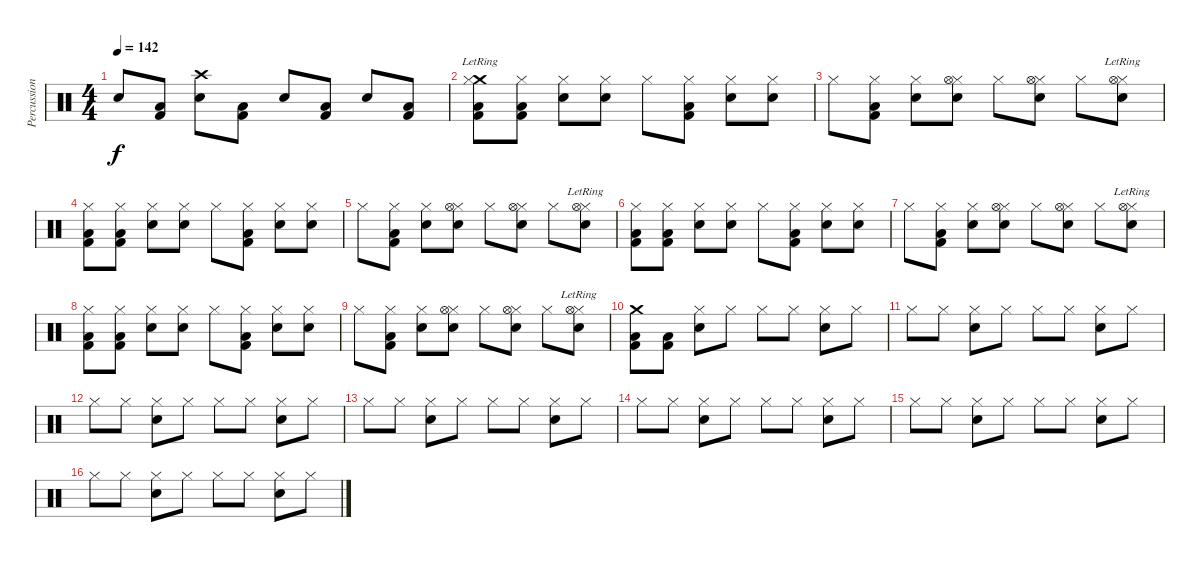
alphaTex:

\track ("Percussions" "Percussion") {instrument percussion}
\staff {score}
\articulation defaults
\ts (4 4)
\tempo 142
\clef neutral
\ks c "Electric Snare (hit)".8{dy f}
("Kick (hit) 2" "Low Floor Tom (hit)").8 ("Electric Snare (hit)" "Crash high (hit)").8 ("Kick (hit) 2" "Low Floor Tom (hit)").8 "Electric Snare (hit)".8 ("Kick (hit) 2" "Low Floor Tom (hit)").8 "Electric Snare (hit)".8 ("Kick (hit) 2" "Low Floor Tom (hit)").8 |
("Kick (hit) 2" "Low Floor Tom (hit)" "Crash medium (hit)"{lr} "Hi-Hat (closed)").8 ("Kick (hit) 2" "Low Floor Tom (hit)" "Hi-Hat (closed)").8 ("Electric Snare (hit)" "Hi-Hat (closed)").8 ("Electric Snare (hit)" "Hi-Hat (closed)").8 "Hi-Hat (closed)".8 ("Kick (hit) 2" "Low Floor Tom (hit)" "Hi-Hat (closed)").8 ("Electric Snare (hit)" "Hi-Hat (closed)").8 ("Electric Snare (hit)" "Hi-Hat (closed)").8 |
"Hi-Hat (closed)".8 ("Kick (hit) 2" "Low Floor Tom (hit)" "Hi-Hat (closed)").8 ("Electric Snare (hit)" "Hi-Hat (closed)").8 ("Electric Snare (hit)" "Hi-Hat (closed)" "Hi-Hat (open)").8 "Hi-Hat (closed)".8 ("Electric Snare (hit)" "Hi-Hat (closed)" "Hi-Hat (open)").8 "Hi-Hat (closed)".8 ("Electric Snare (hit)" "Hi-Hat (closed)" "Hi-Hat (open)"{lr}).8 |
("Kick (hit) 2" "Low Floor Tom (hit)" "Hi-Hat (closed)").8 ("Kick (hit) 2" "Low Floor Tom (hit)" "Hi-Hat (closed)").8 ("Electric Snare (hit)" "Hi-Hat (closed)").8 ("Electric Snare (hit)" "Hi-Hat (closed)").8 "Hi-Hat (closed)".8 ("Kick (hit) 2" "Low Floor Tom (hit)" "Hi-Hat (closed)").8 ("Electric Snare (hit)" "Hi-Hat (closed)").8 ("Electric Snare (hit)" "Hi-Hat (closed)").8 |
"Hi-Hat (closed)".8 ("Kick (hit) 2" "Low Floor Tom (hit)" "Hi-Hat (closed)").8 ("Electric Snare (hit)" "Hi-Hat (closed)").8 ("Electric Snare (hit)" "Hi-Hat (closed)" "Hi-Hat (open)").8 "Hi-Hat (closed)".8 ("Electric Snare (hit)" "Hi-Hat (closed)" "Hi-Hat (open)").8 "Hi-Hat (closed)".8 ("Electric Snare (hit)" "Hi-Hat (closed)" "Hi-Hat (open)"{lr}).8 |
("Kick (hit) 2" "Low Floor Tom (hit)" "Hi-Hat (closed)").8 ("Kick (hit) 2" "Low Floor Tom (hit)" "Hi-Hat (closed)").8 ("Electric Snare (hit)" "Hi-Hat (closed)").8 ("Electric Snare (hit)" "Hi-Hat (closed)").8 "Hi-Hat (closed)".8 ("Kick (hit) 2" "Low Floor Tom (hit)" "Hi-Hat (closed)").8 ("Electric Snare (hit)" "Hi-Hat (closed)").8 ("Electric Snare (hit)" "Hi-Hat (closed)").8 |
"Hi-Hat (closed)".8 ("Kick (hit) 2" "Low Floor Tom (hit)" "Hi-Hat (closed)").8 ("Electric Snare (hit)" "Hi-Hat (closed)").8 ("Electric Snare (hit)" "Hi-Hat (closed)" "Hi-Hat (open)").8 "Hi-Hat (closed)".8 ("Electric Snare (hit)" "Hi-Hat (closed)" "Hi-Hat (open)").8 "Hi-Hat (closed)".8 ("Electric Snare (hit)" "Hi-Hat (closed)" "Hi-Hat (open)"{lr}).8 |
("Kick (hit) 2" "Low Floor Tom (hit)" "Hi-Hat (closed)").8 ("Kick (hit) 2" "Low Floor Tom (hit)" "Hi-Hat (closed)").8 ("Electric Snare (hit)" "Hi-Hat (closed)").8 ("Electric Snare (hit)" "Hi-Hat (closed)").8 "Hi-Hat (closed)".8 ("Kick (hit) 2" "Low Floor Tom (hit)" "Hi-Hat (closed)").8 ("Electric Snare (hit)" "Hi-Hat (closed)").8 ("Electric Snare (hit)" "Hi-Hat (closed)").8 |
"Hi-Hat (closed)".8 ("Kick (hit) 2" "Low Floor Tom (hit)" "Hi-Hat (closed)").8 ("Electric Snare (hit)" "Hi-Hat (closed)").8 ("Electric Snare (hit)" "Hi-Hat (closed)" "Hi-Hat (open)").8 "Hi-Hat (closed)".8 ("Electric Snare (hit)" "Hi-Hat (closed)" "Hi-Hat (open)").8 "Hi-Hat (closed)".8 ("Electric Snare (hit)" "Hi-Hat (closed)" "Hi-Hat (open)"{lr}).8 |
("Kick (hit) 2" "Low Floor Tom (hit)" "Crash medium (hit)").8 ("Kick (hit) 2" "Low Floor Tom (hit)").8 ("Electric Snare (hit)" "Hi-Hat (closed)").8 "Hi-Hat (closed)".8 "Hi-Hat (closed)".8 "Hi-Hat (closed)".8 ("Electric Snare (hit)" "Hi-Hat (closed)").8 "Hi-Hat (closed)".8 |
"Hi-Hat (closed)".8 "Hi-Hat (closed)".8 ("Electric Snare (hit)" "Hi-Hat (closed)").8 "Hi-Hat (closed)".8 "Hi-Hat (closed)".8 "Hi-Hat (closed)".8 ("Electric Snare (hit)" "Hi-Hat (closed)").8 "Hi-Hat (closed)".8 |
"Hi-Hat (closed)".8 "Hi-Hat (closed)".8 ("Electric Snare (hit)" "Hi-Hat (closed)").8 "Hi-Hat (closed)".8 "Hi-Hat (closed)".8 "Hi-Hat (closed)".8 ("Electric Snare (hit)" "Hi-Hat (closed)").8 "Hi-Hat (closed)".8 |
"Hi-Hat (closed)".8 "Hi-Hat (closed)".8 ("Electric Snare (hit)" "Hi-Hat (closed)").8 "Hi-Hat (closed)".8 "Hi-Hat (closed)".8 "Hi-Hat (closed)".8 ("Electric Snare (hit)" "Hi-Hat (closed)").8 "Hi-Hat (closed)".8 |
"Hi-Hat (closed)".8 "Hi-Hat (closed)".8 ("Electric Snare (hit)" "Hi-Hat (closed)").8 "Hi-Hat (closed)".8 "Hi-Hat (closed)".8 "Hi-Hat (closed)".8 ("Electric Snare (hit)" "Hi-Hat (closed)").8 "Hi-Hat (closed)".8 |
"Hi-Hat (closed)".8 "Hi-Hat (closed)".8 ("Electric Snare (hit)" "Hi-Hat (closed)").8 "Hi-Hat (closed)".8 "Hi-Hat (closed)".8 "Hi-Hat (closed)".8 ("Electric Snare (hit)" "Hi-Hat (closed)").8 "Hi-Hat (closed)".8 |
"Hi-Hat (closed)".8 "Hi-Hat (closed)".8 ("Electric Snare (hit)" "Hi-Hat (closed)").8 "Hi-Hat (closed)".8 "Hi-Hat (closed)".8 "Hi-Hat (closed)".8 ("Electric Snare (hit)" "Hi-Hat (closed)").8 "Hi-Hat (closed)".8
